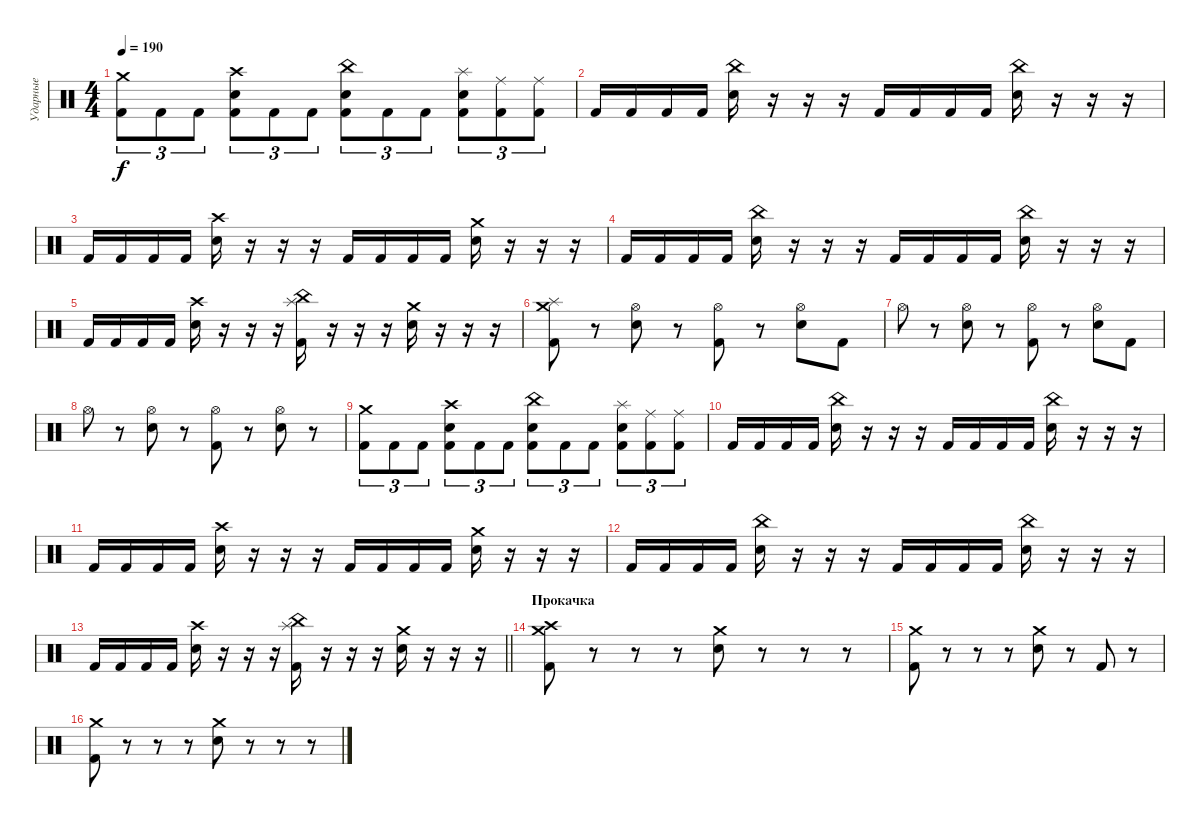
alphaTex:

\track ("Ударные" "Ударные") {instrument percussion}
\staff {score}
\articulation defaults
\ts (4 4)
\tempo 190
\clef neutral
\ks c
("Kick (hit) 2" "Crash medium (hit)").8{tu (3 2) dy f} "Kick (hit) 2".8{tu (3 2)} "Kick (hit) 2".8{tu (3 2)} ("Kick (hit) 2" "Electric Snare (hit)" "Crash high (hit)").8{tu (3 2)} "Kick (hit) 2".8{tu (3 2)} "Kick (hit) 2".8{tu (3 2)} ("Kick (hit) 2" "Electric Snare (hit)" "China (hit)").8{tu (3 2)} "Kick (hit) 2".8{tu (3 2)} "Kick (hit) 2".8{tu (3 2)} ("Kick (hit) 2" "Electric Snare (hit)" "Splash (hit)").8{tu (3 2)} ("Kick (hit) 2" "Ride (middle)").8{tu (3 2)} ("Kick (hit) 2" "Ride (middle)").8{tu (3 2)} |
"Kick (hit) 2".16 "Kick (hit) 2".16 "Kick (hit) 2".16 "Kick (hit) 2".16 ("Electric Snare (hit)" "China (hit)").16 r.16 r.16 r.16 "Kick (hit) 2".16 "Kick (hit) 2".16 "Kick (hit) 2".16 "Kick (hit) 2".16 ("Electric Snare (hit)" "China (hit)").16 r.16 r.16 r.16 |
"Kick (hit) 2".16 "Kick (hit) 2".16 "Kick (hit) 2".16 "Kick (hit) 2".16 ("Electric Snare (hit)" "Crash high (hit)").16 r.16 r.16 r.16 "Kick (hit) 2".16 "Kick (hit) 2".16 "Kick (hit) 2".16 "Kick (hit) 2".16 ("Electric Snare (hit)" "Crash medium (hit)").16 r.16 r.16 r.16 |
"Kick (hit) 2".16 "Kick (hit) 2".16 "Kick (hit) 2".16 "Kick (hit) 2".16 ("Electric Snare (hit)" "China (hit)").16 r.16 r.16 r.16 "Kick (hit) 2".16 "Kick (hit) 2".16 "Kick (hit) 2".16 "Kick (hit) 2".16 ("Electric Snare (hit)" "China (hit)").16 r.16 r.16 r.16 |
"Kick (hit) 2".16 "Kick (hit) 2".16 "Kick (hit) 2".16 "Kick (hit) 2".16 ("Electric Snare (hit)" "Crash high (hit)").16 r.16 r.16 r.16 ("Kick (hit) 2" "China (hit)" "Splash (hit)").16 r.16 r.16 r.16 ("Electric Snare (hit)" "Crash medium (hit)").16 r.16 r.16 r.16 |
("Kick (hit) 2" "Splash (hit)" "Crash medium (hit)").8 r.8 ("Electric Snare (hit)" "Hi-Hat (open)").8 r.8 ("Kick (hit) 2" "Hi-Hat (open)").8 r.8 ("Electric Snare (hit)" "Hi-Hat (open)").8 "Kick (hit) 2".8 |
"Hi-Hat (open)".8 r.8 ("Electric Snare (hit)" "Hi-Hat (open)").8 r.8 ("Kick (hit) 2" "Hi-Hat (open)").8 r.8 ("Electric Snare (hit)" "Hi-Hat (open)").8 "Kick (hit) 2".8 |
"Hi-Hat (open)".8 r.8 ("Electric Snare (hit)" "Hi-Hat (open)").8 r.8 ("Kick (hit) 2" "Hi-Hat (open)").8 r.8 ("Electric Snare (hit)" "Hi-Hat (open)").8 r.8 |
("Kick (hit) 2" "Crash medium (hit)").8{tu (3 2)} "Kick (hit) 2".8{tu (3 2)} "Kick (hit) 2".8{tu (3 2)} ("Kick (hit) 2" "Electric Snare (hit)" "Crash high (hit)").8{tu (3 2)} "Kick (hit) 2".8{tu (3 2)} "Kick (hit) 2".8{tu (3 2)} ("Kick (hit) 2" "Electric Snare (hit)" "China (hit)").8{tu (3 2)} "Kick (hit) 2".8{tu (3 2)} "Kick (hit) 2".8{tu (3 2)} ("Kick (hit) 2" "Electric Snare (hit)" "Splash (hit)").8{tu (3 2)} ("Kick (hit) 2" "Ride (middle)").8{tu (3 2)} ("Kick (hit) 2" "Ride (middle)").8{tu (3 2)} |
"Kick (hit) 2".16 "Kick (hit) 2".16 "Kick (hit) 2".16 "Kick (hit) 2".16 ("Electric Snare (hit)" "China (hit)").16 r.16 r.16 r.16 "Kick (hit) 2".16 "Kick (hit) 2".16 "Kick (hit) 2".16 "Kick (hit) 2".16 ("Electric Snare (hit)" "China (hit)").16 r.16 r.16 r.16 |
"Kick (hit) 2".16 "Kick (hit) 2".16 "Kick (hit) 2".16 "Kick (hit) 2".16 ("Electric Snare (hit)" "Crash high (hit)").16 r.16 r.16 r.16 "Kick (hit) 2".16 "Kick (hit) 2".16 "Kick (hit) 2".16 "Kick (hit) 2".16 ("Electric Snare (hit)" "Crash medium (hit)").16 r.16 r.16 r.16 |
"Kick (hit) 2".16 "Kick (hit) 2".16 "Kick (hit) 2".16 "Kick (hit) 2".16 ("Electric Snare (hit)" "China (hit)").16 r.16 r.16 r.16 "Kick (hit) 2".16 "Kick (hit) 2".16 "Kick (hit) 2".16 "Kick (hit) 2".16 ("Electric Snare (hit)" "China (hit)").16 r.16 r.16 r.16 |
\barLineRight lightlight "Kick (hit) 2".16 "Kick (hit) 2".16 "Kick (hit) 2".16 "Kick (hit) 2".16
("Electric Snare (hit)" "Crash high (hit)").16 r.16 r.16 r.16 ("Kick (hit) 2" "China (hit)" "Splash (hit)").16 r.16 r.16 r.16 ("Electric Snare (hit)" "Crash medium (hit)").16 r.16 r.16 r.16 |
\section ("" "Прокачка")
("Kick (hit) 2" "Crash high (hit)" "Crash medium (hit)").8 r.8 r.8 r.8 ("Electric Snare (hit)" "Crash medium (hit)").8 r.8 r.8 r.8 |
("Kick (hit) 2" "Crash medium (hit)").8 r.8 r.8 r.8 ("Electric Snare (hit)" "Crash medium (hit)").8 r.8 "Kick (hit) 2".8 r.8 |
("Kick (hit) 2" "Crash medium (hit)").8 r.8 r.8 r.8 ("Electric Snare (hit)" "Crash medium (hit)").8 r.8 r.8 r.8
